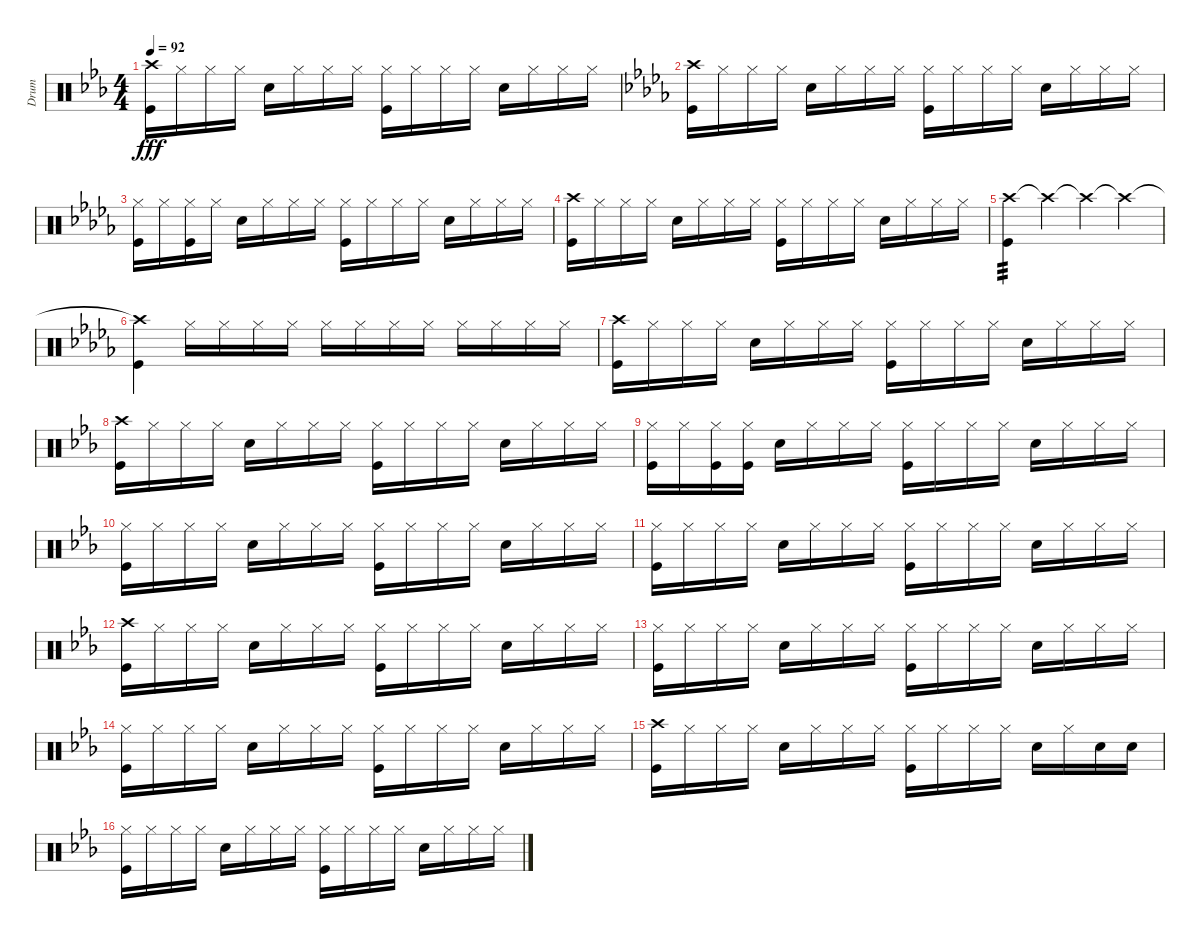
\track ("Drum" "Drum") {instrument percussion}
\staff {score}
\articulation defaults
\ts (4 4)
\tempo 92
\clef neutral
\ks eb
("Crash high (hit)" "Kick (hit)").16{dy fff} "Hi-Hat (closed)".16 "Hi-Hat (closed)".16 "Hi-Hat (closed)".16 "Snare (hit) 2".16 "Hi-Hat (closed)".16 "Hi-Hat (closed)".16 "Hi-Hat (closed)".16 ("Hi-Hat (closed)" "Kick (hit)").16 "Hi-Hat (closed)".16 "Hi-Hat (closed)".16 "Hi-Hat (closed)".16 "Snare (hit) 2".16 "Hi-Hat (closed)".16 "Hi-Hat (closed)".16 "Hi-Hat (closed)".16 |
\ks db
("Crash high (hit)" "Kick (hit)").16 "Hi-Hat (closed)".16 "Hi-Hat (closed)".16 "Hi-Hat (closed)".16 "Snare (hit) 2".16 "Hi-Hat (closed)".16 "Hi-Hat (closed)".16 "Hi-Hat (closed)".16 ("Hi-Hat (closed)" "Kick (hit)").16 "Hi-Hat (closed)".16 "Hi-Hat (closed)".16 "Hi-Hat (closed)".16 "Snare (hit) 2".16 "Hi-Hat (closed)".16 "Hi-Hat (closed)".16 "Hi-Hat (closed)".16 |
("Hi-Hat (closed)" "Kick (hit)").16 "Hi-Hat (closed)".16 ("Hi-Hat (closed)" "Kick (hit)").16 "Hi-Hat (closed)".16 "Snare (hit) 2".16 "Hi-Hat (closed)".16 "Hi-Hat (closed)".16 "Hi-Hat (closed)".16 ("Hi-Hat (closed)" "Kick (hit)").16 "Hi-Hat (closed)".16 "Hi-Hat (closed)".16 "Hi-Hat (closed)".16 "Snare (hit) 2".16 "Hi-Hat (closed)".16 "Hi-Hat (closed)".16 "Hi-Hat (closed)".16 |
("Crash high (hit)" "Kick (hit)").16 "Hi-Hat (closed)".16 "Hi-Hat (closed)".16 "Hi-Hat (closed)".16 "Snare (hit) 2".16 "Hi-Hat (closed)".16 "Hi-Hat (closed)".16 "Hi-Hat (closed)".16 ("Hi-Hat (closed)" "Kick (hit)").16 "Hi-Hat (closed)".16 "Hi-Hat (closed)".16 "Hi-Hat (closed)".16 "Snare (hit) 2".16 "Hi-Hat (closed)".16 "Hi-Hat (closed)".16 "Hi-Hat (closed)".16 |
("Crash high (hit)" "Kick (hit)").4{tp 3} "Crash high (hit)"{t}.4 "Crash high (hit)"{t}.4 "Crash high (hit)"{t}.4 |
("Crash high (hit)"{t} "Kick (hit)").4 "Hi-Hat (closed)".16 "Hi-Hat (closed)".16 "Hi-Hat (closed)".16 "Hi-Hat (closed)".16 "Hi-Hat (closed)".16 "Hi-Hat (closed)".16 "Hi-Hat (closed)".16 "Hi-Hat (closed)".16 "Hi-Hat (closed)".16 "Hi-Hat (closed)".16 "Hi-Hat (closed)".16 "Hi-Hat (closed)".16 |
("Crash high (hit)" "Kick (hit)").16 "Hi-Hat (closed)".16 "Hi-Hat (closed)".16 "Hi-Hat (closed)".16 "Snare (hit) 2".16 "Hi-Hat (closed)".16 "Hi-Hat (closed)".16 "Hi-Hat (closed)".16 ("Hi-Hat (closed)" "Kick (hit)").16 "Hi-Hat (closed)".16 "Hi-Hat (closed)".16 "Hi-Hat (closed)".16 "Snare (hit) 2".16 "Hi-Hat (closed)".16 "Hi-Hat (closed)".16 "Hi-Hat (closed)".16 |
\ks eb
("Crash high (hit)" "Kick (hit)").16 "Hi-Hat (closed)".16 "Hi-Hat (closed)".16 "Hi-Hat (closed)".16 "Snare (hit) 2".16 "Hi-Hat (closed)".16 "Hi-Hat (closed)".16 "Hi-Hat (closed)".16 ("Hi-Hat (closed)" "Kick (hit)").16 "Hi-Hat (closed)".16 "Hi-Hat (closed)".16 "Hi-Hat (closed)".16 "Snare (hit) 2".16 "Hi-Hat (closed)".16 "Hi-Hat (closed)".16 "Hi-Hat (closed)".16 |
("Hi-Hat (closed)" "Kick (hit)").16 "Hi-Hat (closed)".16 ("Hi-Hat (closed)" "Kick (hit)").16 ("Hi-Hat (closed)" "Kick (hit)").16 "Snare (hit) 2".16 "Hi-Hat (closed)".16 "Hi-Hat (closed)".16 "Hi-Hat (closed)".16 ("Hi-Hat (closed)" "Kick (hit)").16 "Hi-Hat (closed)".16 "Hi-Hat (closed)".16 "Hi-Hat (closed)".16 "Snare (hit) 2".16 "Hi-Hat (closed)".16 "Hi-Hat (closed)".16 "Hi-Hat (closed)".16 |
("Hi-Hat (closed)" "Kick (hit)").16 "Hi-Hat (closed)".16 "Hi-Hat (closed)".16 "Hi-Hat (closed)".16 "Snare (hit) 2".16 "Hi-Hat (closed)".16 "Hi-Hat (closed)".16 "Hi-Hat (closed)".16 ("Hi-Hat (closed)" "Kick (hit)").16 "Hi-Hat (closed)".16 "Hi-Hat (closed)".16 "Hi-Hat (closed)".16 "Snare (hit) 2".16 "Hi-Hat (closed)".16 "Hi-Hat (closed)".16 "Hi-Hat (closed)".16 |
("Hi-Hat (closed)" "Kick (hit)").16 "Hi-Hat (closed)".16 "Hi-Hat (closed)".16 "Hi-Hat (closed)".16 "Snare (hit) 2".16 "Hi-Hat (closed)".16 "Hi-Hat (closed)".16 "Hi-Hat (closed)".16 ("Hi-Hat (closed)" "Kick (hit)").16 "Hi-Hat (closed)".16 "Hi-Hat (closed)".16 "Hi-Hat (closed)".16 "Snare (hit) 2".16 "Hi-Hat (closed)".16 "Hi-Hat (closed)".16 "Hi-Hat (closed)".16 |
("Crash high (hit)" "Kick (hit)").16 "Hi-Hat (closed)".16 "Hi-Hat (closed)".16 "Hi-Hat (closed)".16 "Snare (hit) 2".16 "Hi-Hat (closed)".16 "Hi-Hat (closed)".16 "Hi-Hat (closed)".16 ("Hi-Hat (closed)" "Kick (hit)").16 "Hi-Hat (closed)".16 "Hi-Hat (closed)".16 "Hi-Hat (closed)".16 "Snare (hit) 2".16 "Hi-Hat (closed)".16 "Hi-Hat (closed)".16 "Hi-Hat (closed)".16 |
("Hi-Hat (closed)" "Kick (hit)").16 "Hi-Hat (closed)".16 "Hi-Hat (closed)".16 "Hi-Hat (closed)".16 "Snare (hit) 2".16 "Hi-Hat (closed)".16 "Hi-Hat (closed)".16 "Hi-Hat (closed)".16 ("Hi-Hat (closed)" "Kick (hit)").16 "Hi-Hat (closed)".16 "Hi-Hat (closed)".16 "Hi-Hat (closed)".16 "Snare (hit) 2".16 "Hi-Hat (closed)".16 "Hi-Hat (closed)".16 "Hi-Hat (closed)".16 |
("Hi-Hat (closed)" "Kick (hit)").16 "Hi-Hat (closed)".16 "Hi-Hat (closed)".16 "Hi-Hat (closed)".16 "Snare (hit) 2".16 "Hi-Hat (closed)".16 "Hi-Hat (closed)".16 "Hi-Hat (closed)".16 ("Hi-Hat (closed)" "Kick (hit)").16 "Hi-Hat (closed)".16 "Hi-Hat (closed)".16 "Hi-Hat (closed)".16 "Snare (hit) 2".16 "Hi-Hat (closed)".16 "Hi-Hat (closed)".16 "Hi-Hat (closed)".16 |
("Crash high (hit)" "Kick (hit)").16 "Hi-Hat (closed)".16 "Hi-Hat (closed)".16 "Hi-Hat (closed)".16 "Snare (hit) 2".16 "Hi-Hat (closed)".16 "Hi-Hat (closed)".16 "Hi-Hat (closed)".16 ("Hi-Hat (closed)" "Kick (hit)").16 "Hi-Hat (closed)".16 "Hi-Hat (closed)".16 "Hi-Hat (closed)".16 "Snare (hit) 2".16 "Hi-Hat (closed)".16 "Snare (hit) 2".16 "Snare (hit) 2".16 |
("Hi-Hat (closed)" "Kick (hit)").16 "Hi-Hat (closed)".16 "Hi-Hat (closed)".16 "Hi-Hat (closed)".16 "Snare (hit) 2".16 "Hi-Hat (closed)".16 "Hi-Hat (closed)".16 "Hi-Hat (closed)".16 ("Hi-Hat (closed)" "Kick (hit)").16 "Hi-Hat (closed)".16 "Hi-Hat (closed)".16 "Hi-Hat (closed)".16 "Snare (hit) 2".16 "Hi-Hat (closed)".16 "Hi-Hat (closed)".16 "Hi-Hat (closed)".16
